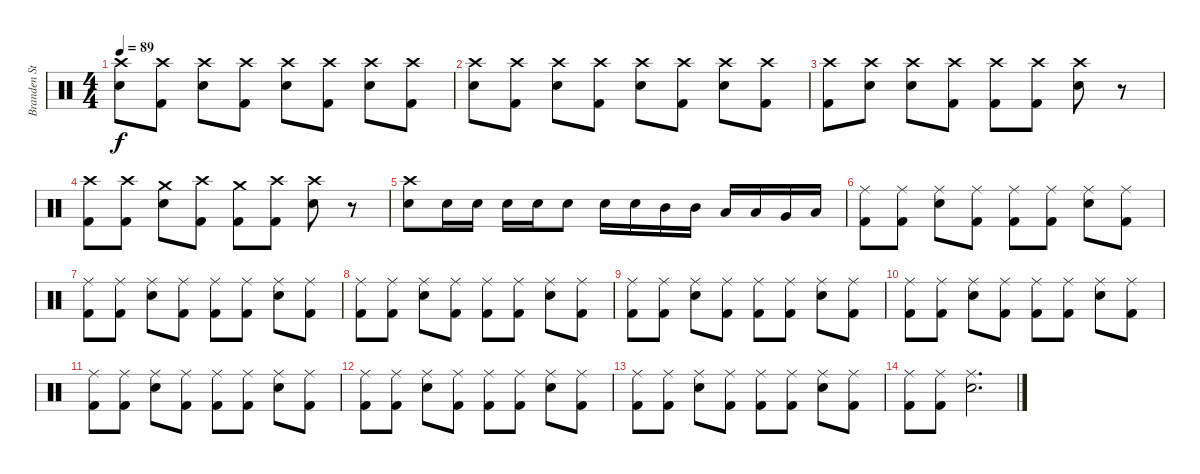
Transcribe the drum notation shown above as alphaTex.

\track ("Branden Steineckert" "Branden St") {instrument percussion}
\staff {score}
\articulation defaults
\ts (4 4)
\tempo 89
\clef neutral
\ks c
("Crash high (hit)" "Electric Snare (hit)").8{dy f} ("Crash high (hit)" "Kick (hit) 2").8 ("Crash high (hit)" "Electric Snare (hit)").8 ("Crash high (hit)" "Kick (hit) 2").8 ("Crash high (hit)" "Electric Snare (hit)").8 ("Crash high (hit)" "Kick (hit) 2").8 ("Crash high (hit)" "Electric Snare (hit)").8 ("Crash high (hit)" "Kick (hit) 2").8 |
("Crash high (hit)" "Electric Snare (hit)").8 ("Crash high (hit)" "Kick (hit) 2").8 ("Crash high (hit)" "Electric Snare (hit)").8 ("Crash high (hit)" "Kick (hit) 2").8 ("Crash high (hit)" "Electric Snare (hit)").8 ("Crash high (hit)" "Kick (hit) 2").8 ("Crash high (hit)" "Electric Snare (hit)").8 ("Crash high (hit)" "Kick (hit) 2").8 |
("Crash high (hit)" "Kick (hit) 2").8 ("Crash high (hit)" "Electric Snare (hit)").8 ("Crash high (hit)" "Electric Snare (hit)").8 ("Crash high (hit)" "Kick (hit) 2").8 ("Crash high (hit)" "Kick (hit) 2").8 ("Crash high (hit)" "Kick (hit) 2").8 ("Crash high (hit)" "Electric Snare (hit)").8 r.8 |
("Crash high (hit)" "Kick (hit) 2").8 ("Crash high (hit)" "Kick (hit) 2").8 ("Crash medium (hit)" "Electric Snare (hit)").8 ("Crash high (hit)" "Kick (hit) 2").8 ("Crash medium (hit)" "Kick (hit) 2").8 ("Crash high (hit)" "Kick (hit) 2").8 ("Crash high (hit)" "Electric Snare (hit)").8 r.8 |
("Crash high (hit)" "Electric Snare (hit)").8 "Electric Snare (hit)".16 "Electric Snare (hit)".16 "Electric Snare (hit)".16 "Electric Snare (hit)".16 "Electric Snare (hit)".8 "Electric Snare (hit)".16 "Electric Snare (hit)".16 "Mid Tom (hit)".16 "Mid Tom (hit)".16 "Low Tom (hit)".16 "Low Tom (hit)".16 "Very Low Tom (hit)".16 "Low Floor Tom (hit)".16 |
("Ride (middle)" "Kick (hit) 2").8 ("Ride (middle)" "Kick (hit) 2").8 ("Ride (middle)" "Electric Snare (hit)").8 ("Ride (middle)" "Kick (hit) 2").8 ("Ride (middle)" "Kick (hit) 2").8 ("Ride (middle)" "Kick (hit) 2").8 ("Ride (middle)" "Electric Snare (hit)").8 ("Ride (middle)" "Kick (hit) 2").8 |
("Ride (middle)" "Kick (hit) 2").8 ("Ride (middle)" "Kick (hit) 2").8 ("Ride (middle)" "Electric Snare (hit)").8 ("Ride (middle)" "Kick (hit) 2").8 ("Ride (middle)" "Kick (hit) 2").8 ("Ride (middle)" "Kick (hit) 2").8 ("Ride (middle)" "Electric Snare (hit)").8 ("Ride (middle)" "Kick (hit) 2").8 |
("Ride (middle)" "Kick (hit) 2").8 ("Ride (middle)" "Kick (hit) 2").8 ("Ride (middle)" "Electric Snare (hit)").8 ("Ride (middle)" "Kick (hit) 2").8 ("Ride (middle)" "Kick (hit) 2").8 ("Ride (middle)" "Kick (hit) 2").8 ("Ride (middle)" "Electric Snare (hit)").8 ("Ride (middle)" "Kick (hit) 2").8 |
("Ride (middle)" "Kick (hit) 2").8 ("Ride (middle)" "Kick (hit) 2").8 ("Ride (middle)" "Electric Snare (hit)").8 ("Ride (middle)" "Kick (hit) 2").8 ("Ride (middle)" "Kick (hit) 2").8 ("Ride (middle)" "Kick (hit) 2").8 ("Ride (middle)" "Electric Snare (hit)").8 ("Ride (middle)" "Kick (hit) 2").8 |
("Ride (middle)" "Kick (hit) 2").8 ("Ride (middle)" "Kick (hit) 2").8 ("Ride (middle)" "Electric Snare (hit)").8 ("Ride (middle)" "Kick (hit) 2").8 ("Ride (middle)" "Kick (hit) 2").8 ("Ride (middle)" "Kick (hit) 2").8 ("Ride (middle)" "Electric Snare (hit)").8 ("Ride (middle)" "Kick (hit) 2").8 |
("Ride (middle)" "Kick (hit) 2").8 ("Ride (middle)" "Kick (hit) 2").8 ("Ride (middle)" "Electric Snare (hit)").8 ("Ride (middle)" "Kick (hit) 2").8 ("Ride (middle)" "Kick (hit) 2").8 ("Ride (middle)" "Kick (hit) 2").8 ("Ride (middle)" "Electric Snare (hit)").8 ("Ride (middle)" "Kick (hit) 2").8 |
("Ride (middle)" "Kick (hit) 2").8 ("Ride (middle)" "Kick (hit) 2").8 ("Ride (middle)" "Electric Snare (hit)").8 ("Ride (middle)" "Kick (hit) 2").8 ("Ride (middle)" "Kick (hit) 2").8 ("Ride (middle)" "Kick (hit) 2").8 ("Ride (middle)" "Electric Snare (hit)").8 ("Ride (middle)" "Kick (hit) 2").8 |
("Ride (middle)" "Kick (hit) 2").8 ("Ride (middle)" "Kick (hit) 2").8 ("Ride (middle)" "Electric Snare (hit)").8 ("Ride (middle)" "Kick (hit) 2").8 ("Ride (middle)" "Kick (hit) 2").8 ("Ride (middle)" "Kick (hit) 2").8 ("Ride (middle)" "Electric Snare (hit)").8 ("Ride (middle)" "Kick (hit) 2").8 |
("Ride (middle)" "Kick (hit) 2").8 ("Ride (middle)" "Kick (hit) 2").8 ("Ride (middle)" "Electric Snare (hit)").2{d}
